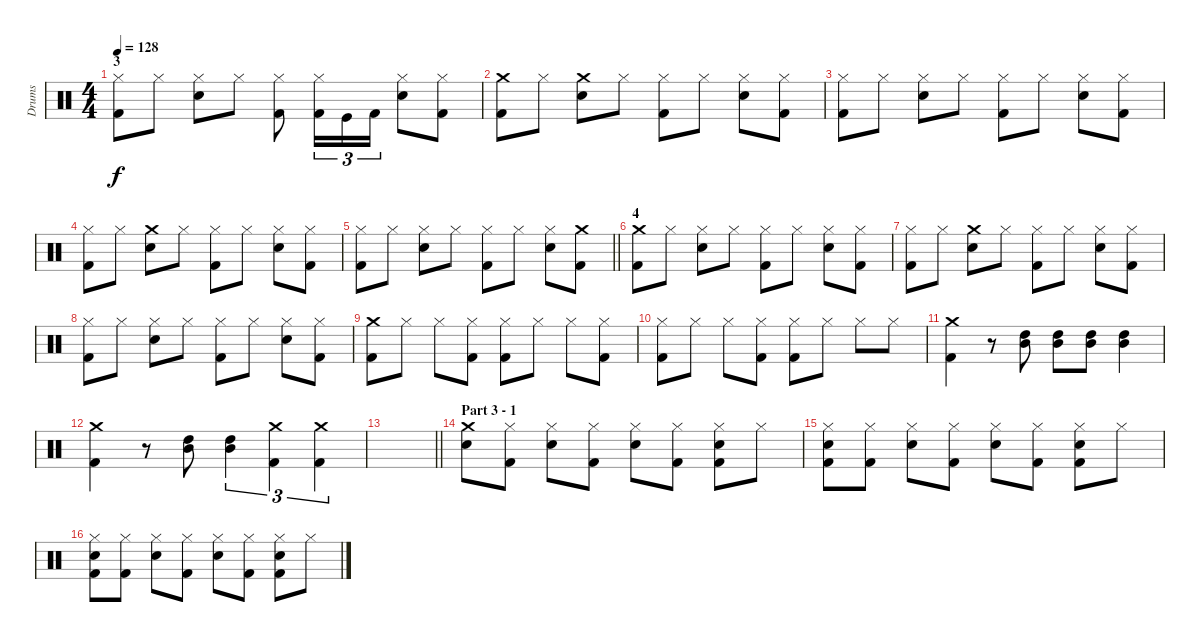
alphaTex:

\track ("Drums" "Drums") {instrument percussion}
\staff {score}
\articulation defaults
\ts (4 4)
\section ("" "3")
\tempo 128
\clef neutral
\ks c
("Kick (hit) 2" "Hi-Hat (closed)").8{dy f} "Hi-Hat (closed)".8 ("Hi-Hat (closed)" "Snare (hit) 2").8 "Hi-Hat (closed)".8 ("Kick (hit) 2" "Hi-Hat (closed)").8 ("Kick (hit) 2" "Hi-Hat (closed)").16{tu (3 2)} "Kick (hit)".16{tu (3 2)} "Kick (hit) 2".16{tu (3 2)} ("Snare (hit) 2" "Hi-Hat (closed)").8 ("Kick (hit) 2" "Hi-Hat (closed)").8 |
("Crash medium (hit)" "Kick (hit) 2").8 "Hi-Hat (closed)".8 ("Crash medium (hit)" "Snare (hit) 2").8 "Hi-Hat (closed)".8 ("Hi-Hat (closed)" "Kick (hit) 2").8 "Hi-Hat (closed)".8 ("Snare (hit) 2" "Hi-Hat (closed)").8 ("Kick (hit) 2" "Hi-Hat (closed)").8 |
("Hi-Hat (closed)" "Kick (hit) 2").8 "Hi-Hat (closed)".8 ("Snare (hit) 2" "Hi-Hat (closed)").8 "Hi-Hat (closed)".8 ("Hi-Hat (closed)" "Kick (hit) 2").8 "Hi-Hat (closed)".8 ("Snare (hit) 2" "Hi-Hat (closed)").8 ("Hi-Hat (closed)" "Kick (hit) 2").8 |
("Hi-Hat (closed)" "Kick (hit) 2").8 "Hi-Hat (closed)".8 ("Crash medium (hit)" "Snare (hit) 2").8 "Hi-Hat (closed)".8 ("Hi-Hat (closed)" "Kick (hit) 2").8 "Hi-Hat (closed)".8 ("Snare (hit) 2" "Hi-Hat (closed)").8 ("Kick (hit) 2" "Hi-Hat (closed)").8 |
\barLineRight lightlight
("Kick (hit) 2" "Hi-Hat (closed)").8 "Hi-Hat (closed)".8 ("Snare (hit) 2" "Hi-Hat (closed)").8 "Hi-Hat (closed)".8 ("Kick (hit) 2" "Hi-Hat (closed)").8 "Hi-Hat (closed)".8 ("Snare (hit) 2" "Hi-Hat (closed)").8 ("Crash medium (hit)" "Kick (hit) 2").8 |
\section ("" "4")
("Crash medium (hit)" "Kick (hit) 2").8 "Hi-Hat (closed)".8 ("Snare (hit) 2" "Hi-Hat (closed)").8 "Hi-Hat (closed)".8 ("Hi-Hat (closed)" "Kick (hit) 2").8 "Hi-Hat (closed)".8 ("Snare (hit) 2" "Hi-Hat (closed)").8 ("Kick (hit) 2" "Hi-Hat (closed)").8 |
("Hi-Hat (closed)" "Kick (hit) 2").8 "Hi-Hat (closed)".8 ("Crash medium (hit)" "Snare (hit) 2").8 "Hi-Hat (closed)".8 ("Hi-Hat (closed)" "Kick (hit) 2").8 "Hi-Hat (closed)".8 ("Snare (hit) 2" "Hi-Hat (closed)").8 ("Hi-Hat (closed)" "Kick (hit) 2").8 |
("Hi-Hat (closed)" "Kick (hit) 2").8 "Hi-Hat (closed)".8 ("Hi-Hat (closed)" "Snare (hit) 2").8 "Hi-Hat (closed)".8 ("Hi-Hat (closed)" "Kick (hit) 2").8 "Hi-Hat (closed)".8 ("Snare (hit) 2" "Hi-Hat (closed)").8 ("Kick (hit) 2" "Hi-Hat (closed)").8 |
("Kick (hit) 2" "Crash medium (hit)").8 "Hi-Hat (closed)".8 "Hi-Hat (closed)".8 ("Kick (hit) 2" "Hi-Hat (closed)").8 ("Kick (hit) 2" "Hi-Hat (closed)").8 "Hi-Hat (closed)".8 "Hi-Hat (closed)".8 ("Kick (hit) 2" "Hi-Hat (closed)").8 |
("Hi-Hat (closed)" "Kick (hit) 2").8 "Hi-Hat (closed)".8 "Hi-Hat (closed)".8 ("Kick (hit) 2" "Hi-Hat (closed)").8 ("Hi-Hat (closed)" "Kick (hit) 2").8 "Hi-Hat (closed)".8 "Hi-Hat (closed)".8 "Hi-Hat (closed)".8 |
("Kick (hit) 2" "Crash medium (hit)").4 r.8 ("High Tom (hit)" "Mid Tom (hit)").8 ("High Tom (hit)" "Mid Tom (hit)").8 ("High Tom (hit)" "Mid Tom (hit)").8 ("High Tom (hit)" "Mid Tom (hit)").4 |
("Kick (hit) 2" "Crash medium (hit)").4 r.8 ("Mid Tom (hit)" "High Tom (hit)").8 ("High Tom (hit)" "Mid Tom (hit)").4{tu (3 2)} ("Kick (hit) 2" "Crash medium (hit)").4{tu (3 2)} ("Kick (hit) 2" "Crash medium (hit)").4{tu (3 2)} |
\barLineRight lightlight
|
\section ("" "Part 3 - 1")
("Crash medium (hit)" "Snare (hit) 2").8 ("Kick (hit) 2" "Hi-Hat (closed)").8 ("Snare (hit) 2" "Hi-Hat (closed)").8 ("Kick (hit) 2" "Hi-Hat (closed)").8 ("Hi-Hat (closed)" "Snare (hit) 2").8 ("Hi-Hat (closed)" "Kick (hit) 2").8 ("Snare (hit) 2" "Hi-Hat (closed)" "Kick (hit) 2").8 "Hi-Hat (closed)".8 |
("Kick (hit) 2" "Snare (hit) 2" "Hi-Hat (closed)").8 ("Hi-Hat (closed)" "Kick (hit) 2").8 ("Snare (hit) 2" "Hi-Hat (closed)").8 ("Kick (hit) 2" "Hi-Hat (closed)").8 ("Hi-Hat (closed)" "Snare (hit) 2").8 ("Kick (hit) 2" "Hi-Hat (closed)").8 ("Kick (hit) 2" "Hi-Hat (closed)" "Snare (hit) 2").8 "Hi-Hat (closed)".8 |
("Kick (hit) 2" "Snare (hit) 2" "Hi-Hat (closed)").8 ("Hi-Hat (closed)" "Kick (hit) 2").8 ("Snare (hit) 2" "Hi-Hat (closed)").8 ("Kick (hit) 2" "Hi-Hat (closed)").8 ("Hi-Hat (closed)" "Snare (hit) 2").8 ("Kick (hit) 2" "Hi-Hat (closed)").8 ("Kick (hit) 2" "Hi-Hat (closed)" "Snare (hit) 2").8 "Hi-Hat (closed)".8
